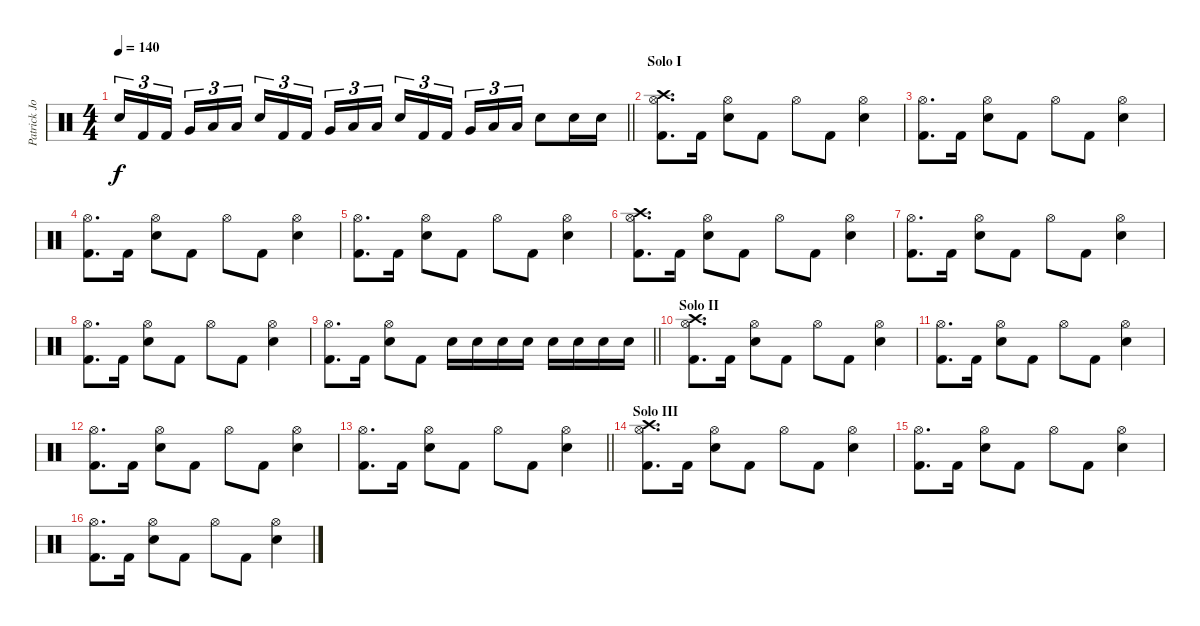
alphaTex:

\track ("Patrick Johansson" "Patrick Jo") {instrument percussion}
\staff {score}
\articulation defaults
\ts (4 4)
\tempo 140
\clef neutral
\barLineRight lightlight
\ks c "Snare (hit) 2".16{tu (3 2) dy f} "Kick (hit) 2".16{tu (3 2)} "Kick (hit) 2".16{tu (3 2) beam splitsecondary} "Very Low Tom (hit)".16{tu (3 2)} "Low Floor Tom (hit)".16{tu (3 2)} "Low Floor Tom (hit)".16{tu (3 2)} "Snare (hit) 2".16{tu (3 2)} "Kick (hit) 2".16{tu (3 2)} "Kick (hit) 2".16{tu (3 2) beam splitsecondary} "Very Low Tom (hit)".16{tu (3 2)} "Low Floor Tom (hit)".16{tu (3 2)} "Low Floor Tom (hit)".16{tu (3 2)} "Snare (hit) 2".16{tu (3 2)} "Kick (hit) 2".16{tu (3 2)} "Kick (hit) 2".16{tu (3 2) beam splitsecondary} "Very Low Tom (hit)".16{tu (3 2)} "Low Floor Tom (hit)".16{tu (3 2)} "Low Floor Tom (hit)".16{tu (3 2)} "Snare (hit) 2".8 "Snare (hit) 2".16 "Snare (hit) 2".16
|
\section ("" "Solo I")
("Crash high (hit)" "Hi-Hat (open)" "Kick (hit) 2").8{d} "Kick (hit) 2".16 ("Hi-Hat (open)" "Snare (hit) 2").8 "Kick (hit) 2".8 "Hi-Hat (open)".8 "Kick (hit) 2".8 ("Hi-Hat (open)" "Snare (hit) 2").4 |
("Hi-Hat (open)" "Kick (hit) 2").8{d} "Kick (hit) 2".16 ("Hi-Hat (open)" "Snare (hit) 2").8 "Kick (hit) 2".8 "Hi-Hat (open)".8 "Kick (hit) 2".8 ("Hi-Hat (open)" "Snare (hit) 2").4 |
("Hi-Hat (open)" "Kick (hit) 2").8{d} "Kick (hit) 2".16 ("Hi-Hat (open)" "Snare (hit) 2").8 "Kick (hit) 2".8 "Hi-Hat (open)".8 "Kick (hit) 2".8 ("Hi-Hat (open)" "Snare (hit) 2").4 |
("Hi-Hat (open)" "Kick (hit) 2").8{d} "Kick (hit) 2".16 ("Hi-Hat (open)" "Snare (hit) 2").8 "Kick (hit) 2".8 "Hi-Hat (open)".8 "Kick (hit) 2".8 ("Hi-Hat (open)" "Snare (hit) 2").4 |
("Crash high (hit)" "Hi-Hat (open)" "Kick (hit) 2").8{d} "Kick (hit) 2".16 ("Hi-Hat (open)" "Snare (hit) 2").8 "Kick (hit) 2".8 "Hi-Hat (open)".8 "Kick (hit) 2".8 ("Hi-Hat (open)" "Snare (hit) 2").4 |
("Hi-Hat (open)" "Kick (hit) 2").8{d} "Kick (hit) 2".16 ("Hi-Hat (open)" "Snare (hit) 2").8 "Kick (hit) 2".8 "Hi-Hat (open)".8 "Kick (hit) 2".8 ("Hi-Hat (open)" "Snare (hit) 2").4 |
("Hi-Hat (open)" "Kick (hit) 2").8{d} "Kick (hit) 2".16 ("Hi-Hat (open)" "Snare (hit) 2").8 "Kick (hit) 2".8 "Hi-Hat (open)".8 "Kick (hit) 2".8 ("Hi-Hat (open)" "Snare (hit) 2").4 |
\barLineRight lightlight
("Hi-Hat (open)" "Kick (hit) 2").8{d} "Kick (hit) 2".16 ("Hi-Hat (open)" "Snare (hit) 2").8 "Kick (hit) 2".8 "Snare (hit) 2".16 "Snare (hit) 2".16 "Snare (hit) 2".16 "Snare (hit) 2".16 "Snare (hit) 2".16 "Snare (hit) 2".16 "Snare (hit) 2".16 "Snare (hit) 2".16 |
\section ("" "Solo II")
("Crash high (hit)" "Hi-Hat (open)" "Kick (hit) 2").8{d} "Kick (hit) 2".16 ("Hi-Hat (open)" "Snare (hit) 2").8 "Kick (hit) 2".8 "Hi-Hat (open)".8 "Kick (hit) 2".8 ("Hi-Hat (open)" "Snare (hit) 2").4 |
("Hi-Hat (open)" "Kick (hit) 2").8{d} "Kick (hit) 2".16 ("Hi-Hat (open)" "Snare (hit) 2").8 "Kick (hit) 2".8 "Hi-Hat (open)".8 "Kick (hit) 2".8 ("Hi-Hat (open)" "Snare (hit) 2").4 |
("Hi-Hat (open)" "Kick (hit) 2").8{d} "Kick (hit) 2".16 ("Hi-Hat (open)" "Snare (hit) 2").8 "Kick (hit) 2".8 "Hi-Hat (open)".8 "Kick (hit) 2".8 ("Hi-Hat (open)" "Snare (hit) 2").4 |
\barLineRight lightlight
("Hi-Hat (open)" "Kick (hit) 2").8{d} "Kick (hit) 2".16 ("Hi-Hat (open)" "Snare (hit) 2").8 "Kick (hit) 2".8 "Hi-Hat (open)".8 "Kick (hit) 2".8 ("Hi-Hat (open)" "Snare (hit) 2").4 |
\section ("" "Solo III")
("Crash high (hit)" "Hi-Hat (open)" "Kick (hit) 2").8{d} "Kick (hit) 2".16 ("Hi-Hat (open)" "Snare (hit) 2").8 "Kick (hit) 2".8 "Hi-Hat (open)".8 "Kick (hit) 2".8 ("Hi-Hat (open)" "Snare (hit) 2").4 |
("Hi-Hat (open)" "Kick (hit) 2").8{d} "Kick (hit) 2".16 ("Hi-Hat (open)" "Snare (hit) 2").8 "Kick (hit) 2".8 "Hi-Hat (open)".8 "Kick (hit) 2".8 ("Hi-Hat (open)" "Snare (hit) 2").4 |
("Hi-Hat (open)" "Kick (hit) 2").8{d} "Kick (hit) 2".16 ("Hi-Hat (open)" "Snare (hit) 2").8 "Kick (hit) 2".8 "Hi-Hat (open)".8 "Kick (hit) 2".8 ("Hi-Hat (open)" "Snare (hit) 2").4
